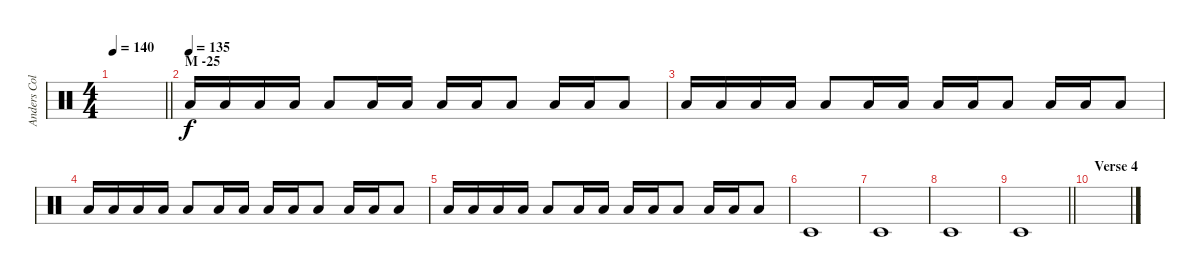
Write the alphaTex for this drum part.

\track ("Anders Colsefni" "Anders Col") {instrument percussion}
\staff {score}
\articulation defaults
\ts (4 4)
\tempo 140
\clef neutral
\barLineRight lightlight
\ks c
|
\section ("" "M -25")
\tempo (135)
"Low Floor Tom (hit)".16 "Low Floor Tom (hit)".16 "Low Floor Tom (hit)".16 "Low Floor Tom (hit)".16 "Low Floor Tom (hit)".8 "Low Floor Tom (hit)".16 "Low Floor Tom (hit)".16 "Low Floor Tom (hit)".16 "Low Floor Tom (hit)".16 "Low Floor Tom (hit)".8 "Low Floor Tom (hit)".16 "Low Floor Tom (hit)".16 "Low Floor Tom (hit)".8 |
"Low Floor Tom (hit)".16 "Low Floor Tom (hit)".16 "Low Floor Tom (hit)".16 "Low Floor Tom (hit)".16 "Low Floor Tom (hit)".8 "Low Floor Tom (hit)".16 "Low Floor Tom (hit)".16 "Low Floor Tom (hit)".16 "Low Floor Tom (hit)".16 "Low Floor Tom (hit)".8 "Low Floor Tom (hit)".16 "Low Floor Tom (hit)".16 "Low Floor Tom (hit)".8 |
"Low Floor Tom (hit)".16 "Low Floor Tom (hit)".16 "Low Floor Tom (hit)".16 "Low Floor Tom (hit)".16 "Low Floor Tom (hit)".8 "Low Floor Tom (hit)".16 "Low Floor Tom (hit)".16 "Low Floor Tom (hit)".16 "Low Floor Tom (hit)".16 "Low Floor Tom (hit)".8 "Low Floor Tom (hit)".16 "Low Floor Tom (hit)".16 "Low Floor Tom (hit)".8 |
"Low Floor Tom (hit)".16 "Low Floor Tom (hit)".16 "Low Floor Tom (hit)".16 "Low Floor Tom (hit)".16 "Low Floor Tom (hit)".8 "Low Floor Tom (hit)".16 "Low Floor Tom (hit)".16 "Low Floor Tom (hit)".16 "Low Floor Tom (hit)".16 "Low Floor Tom (hit)".8 "Low Floor Tom (hit)".16 "Low Floor Tom (hit)".16 "Low Floor Tom (hit)".8 |
"Timbale low (hit)".1 |
"Timbale low (hit)".1 |
"Timbale low (hit)".1 |
\barLineRight lightlight "Timbale low (hit)".1
|
\section ("" "Verse 4")
